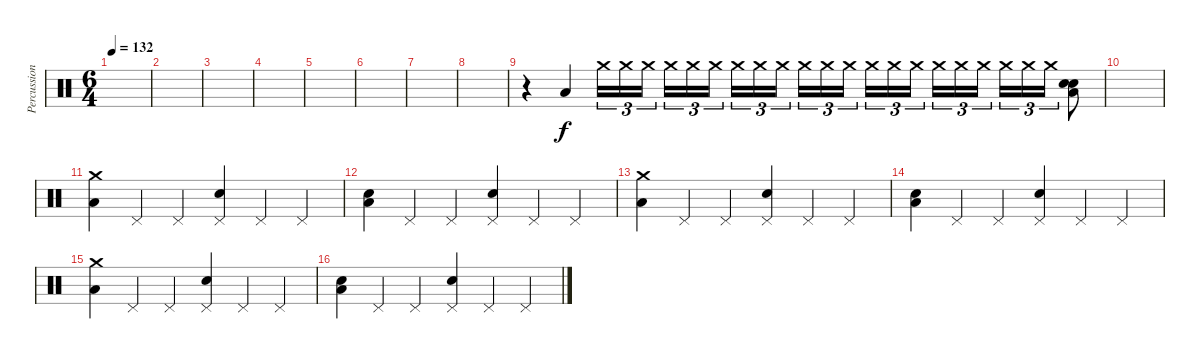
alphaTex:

\track ("Percussion" "Percussion") {instrument percussion}
\staff {score}
\articulation defaults
\ts (6 4)
\tempo 132
\clef neutral
\ks c
|
|
|
|
|
|
|
|
r.4 "Low Floor Tom (hit)".4 "Crash medium (hit)".16{tu (3 2)} "Crash medium (hit)".16{tu (3 2)} "Crash medium (hit)".16{tu (3 2)} "Crash medium (hit)".16{tu (3 2)} "Crash medium (hit)".16{tu (3 2)} "Crash medium (hit)".16{tu (3 2)} "Crash medium (hit)".16{tu (3 2)} "Crash medium (hit)".16{tu (3 2)} "Crash medium (hit)".16{tu (3 2)} "Crash medium (hit)".16{tu (3 2)} "Crash medium (hit)".16{tu (3 2)} "Crash medium (hit)".16{tu (3 2)} "Crash medium (hit)".16{tu (3 2)} "Crash medium (hit)".16{tu (3 2)} "Crash medium (hit)".16{tu (3 2)} "Crash medium (hit)".16{tu (3 2)} "Crash medium (hit)".16{tu (3 2)} "Crash medium (hit)".16{tu (3 2)} "Crash medium (hit)".16{tu (3 2)} "Crash medium (hit)".16{tu (3 2)} "Crash medium (hit)".16{tu (3 2)} ("Low Tom (hit)" "Snare (hit) 2" "Snare (hit) 2").8 |
|
("Crash medium (hit)" "Low Floor Tom (hit)").4 "Pedal Hi-Hat (hit)".4 "Pedal Hi-Hat (hit)".4 ("Pedal Hi-Hat (hit)" "Snare (hit) 2").4 "Pedal Hi-Hat (hit)".4 "Pedal Hi-Hat (hit)".4 |
("Snare (hit) 2" "Low Floor Tom (hit)").4 "Pedal Hi-Hat (hit)".4 "Pedal Hi-Hat (hit)".4 ("Pedal Hi-Hat (hit)" "Snare (hit) 2").4 "Pedal Hi-Hat (hit)".4 "Pedal Hi-Hat (hit)".4 |
("Crash medium (hit)" "Low Floor Tom (hit)").4 "Pedal Hi-Hat (hit)".4 "Pedal Hi-Hat (hit)".4 ("Pedal Hi-Hat (hit)" "Snare (hit) 2").4 "Pedal Hi-Hat (hit)".4 "Pedal Hi-Hat (hit)".4 |
("Snare (hit) 2" "Low Floor Tom (hit)").4 "Pedal Hi-Hat (hit)".4 "Pedal Hi-Hat (hit)".4 ("Pedal Hi-Hat (hit)" "Snare (hit) 2").4 "Pedal Hi-Hat (hit)".4 "Pedal Hi-Hat (hit)".4 |
("Crash medium (hit)" "Low Floor Tom (hit)").4 "Pedal Hi-Hat (hit)".4 "Pedal Hi-Hat (hit)".4 ("Pedal Hi-Hat (hit)" "Snare (hit) 2").4 "Pedal Hi-Hat (hit)".4 "Pedal Hi-Hat (hit)".4 |
("Snare (hit) 2" "Low Floor Tom (hit)").4 "Pedal Hi-Hat (hit)".4 "Pedal Hi-Hat (hit)".4 ("Pedal Hi-Hat (hit)" "Snare (hit) 2").4 "Pedal Hi-Hat (hit)".4 "Pedal Hi-Hat (hit)".4
